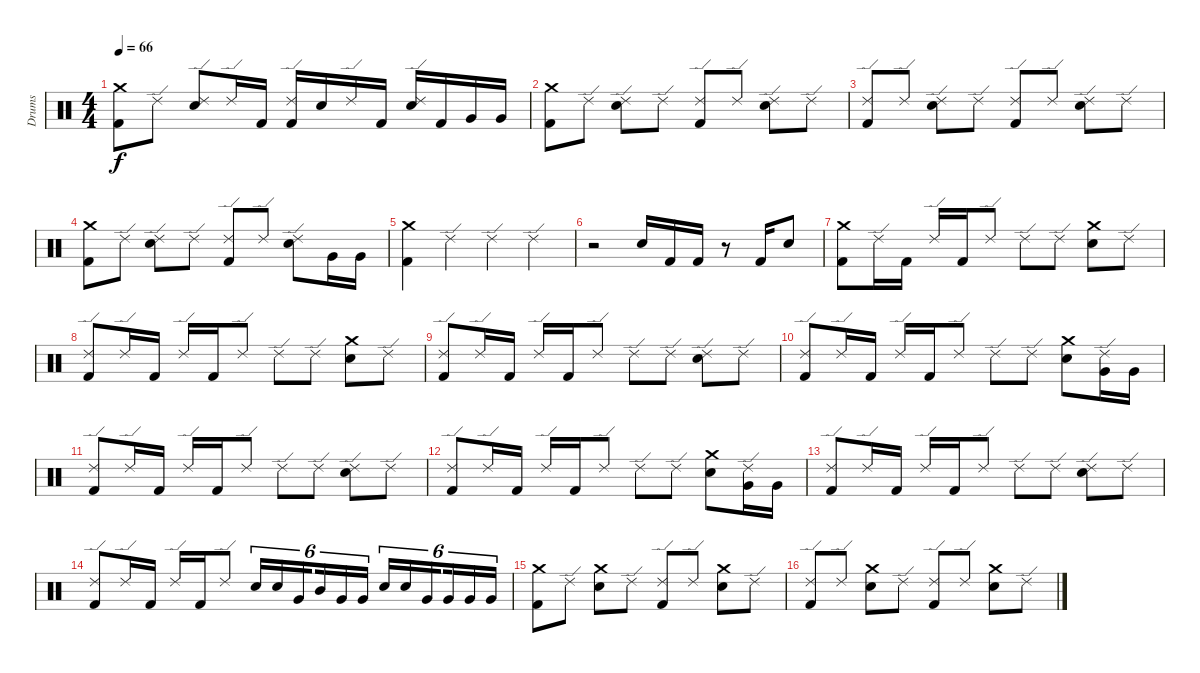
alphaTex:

\track ("Drums" "Drums") {instrument percussion}
\staff {score}
\articulation defaults
\ts (4 4)
\tempo 66
\clef neutral
\ks c
("Kick (hit) 2" "Crash medium (hit)").8{dy f} "Ride (edge) 2".8 ("Snare (hit) 2" "Ride (edge) 2").8 "Ride (edge) 2".16 "Kick (hit) 2".16 ("Kick (hit) 2" "Ride (edge) 2").16 "Snare (hit) 2".16 "Ride (edge) 2".16 "Kick (hit) 2".16 ("Snare (hit) 2" "Ride (edge) 2").16 "Kick (hit) 2".16 "Very Low Tom (hit)".16 "Very Low Tom (hit)".16 |
("Kick (hit) 2" "Crash medium (hit)").8 "Ride (edge) 2".8 ("Snare (hit) 2" "Ride (edge) 2").8 "Ride (edge) 2".8 ("Kick (hit) 2" "Ride (edge) 2").8 "Ride (edge) 2".8 ("Snare (hit) 2" "Ride (edge) 2").8 "Ride (edge) 2".8 |
("Ride (edge) 2" "Kick (hit) 2").8 "Ride (edge) 2".8 ("Ride (edge) 2" "Snare (hit) 2").8 "Ride (edge) 2".8 ("Ride (edge) 2" "Kick (hit) 2").8 "Ride (edge) 2".8 ("Ride (edge) 2" "Snare (hit) 2").8 "Ride (edge) 2".8 |
("Crash medium (hit)" "Kick (hit) 2").8 "Ride (edge) 2".8 ("Ride (edge) 2" "Snare (hit) 2").8 "Ride (edge) 2".8 ("Ride (edge) 2" "Kick (hit) 2").8 "Ride (edge) 2".8 ("Ride (edge) 2" "Snare (hit) 2").8 "Very Low Tom (hit)".16 "Very Low Tom (hit)".16 |
("Kick (hit) 2" "Crash medium (hit)").4 "Ride (edge) 2".4 "Ride (edge) 2".4 "Ride (edge) 2".4 |
r.2 "Snare (hit) 2".16 "Kick (hit) 2".16 "Kick (hit) 2".16 r.8 "Kick (hit) 2".16 "Snare (hit) 2".8 |
("Crash medium (hit)" "Kick (hit) 2").8 "Ride (edge) 2".16 "Kick (hit) 2".16 "Ride (edge) 2".16 "Kick (hit) 2".16 "Ride (edge) 2".8 "Ride (edge) 2".8 "Ride (edge) 2".8 ("Crash medium (hit)" "Snare (hit) 2").8 "Ride (edge) 2".8 |
("Ride (edge) 2" "Kick (hit) 2").8 "Ride (edge) 2".16 "Kick (hit) 2".16 "Ride (edge) 2".16 "Kick (hit) 2".16 "Ride (edge) 2".8 "Ride (edge) 2".8 "Ride (edge) 2".8 ("Crash medium (hit)" "Snare (hit) 2").8 "Ride (edge) 2".8 |
("Ride (edge) 2" "Kick (hit) 2").8 "Ride (edge) 2".16 "Kick (hit) 2".16 "Ride (edge) 2".16 "Kick (hit) 2".16 "Ride (edge) 2".8 "Ride (edge) 2".8 "Ride (edge) 2".8 ("Ride (edge) 2" "Snare (hit) 2").8 "Ride (edge) 2".8 |
("Ride (edge) 2" "Kick (hit) 2").8 "Ride (edge) 2".16 "Kick (hit) 2".16 "Ride (edge) 2".16 "Kick (hit) 2".16 "Ride (edge) 2".8 "Ride (edge) 2".8 "Ride (edge) 2".8 ("Crash medium (hit)" "Snare (hit) 2").8 ("Very Low Tom (hit)" "Ride (edge) 2").16 "Very Low Tom (hit)".16 |
("Ride (edge) 2" "Kick (hit) 2").8 "Ride (edge) 2".16 "Kick (hit) 2".16 "Ride (edge) 2".16 "Kick (hit) 2".16 "Ride (edge) 2".8 "Ride (edge) 2".8 "Ride (edge) 2".8 ("Ride (edge) 2" "Snare (hit) 2").8 "Ride (edge) 2".8 |
("Ride (edge) 2" "Kick (hit) 2").8 "Ride (edge) 2".16 "Kick (hit) 2".16 "Ride (edge) 2".16 "Kick (hit) 2".16 "Ride (edge) 2".8 "Ride (edge) 2".8 "Ride (edge) 2".8 ("Crash medium (hit)" "Snare (hit) 2").8 ("Very Low Tom (hit)" "Ride (edge) 2").16 "Very Low Tom (hit)".16 |
("Ride (edge) 2" "Kick (hit) 2").8 "Ride (edge) 2".16 "Kick (hit) 2".16 "Ride (edge) 2".16 "Kick (hit) 2".16 "Ride (edge) 2".8 "Ride (edge) 2".8 "Ride (edge) 2".8 ("Ride (edge) 2" "Snare (hit) 2").8 "Ride (edge) 2".8 |
("Ride (edge) 2" "Kick (hit) 2").8 "Ride (edge) 2".16 "Kick (hit) 2".16 "Ride (edge) 2".16 "Kick (hit) 2".16 "Ride (edge) 2".8 "Snare (hit) 2".16{tu (6 4)} "Snare (hit) 2".16{tu (6 4)} "Very Low Tom (hit)".16{tu (6 4) beam splitsecondary} "Mid Tom (hit)".16{tu (6 4)} "Very Low Tom (hit)".16{tu (6 4)} "Very Low Tom (hit)".16{tu (6 4)} "Snare (hit) 2".16{tu (6 4)} "Snare (hit) 2".16{tu (6 4)} "Very Low Tom (hit)".16{tu (6 4) beam splitsecondary} "Very Low Tom (hit)".16{tu (6 4)} "Very Low Tom (hit)".16{tu (6 4)} "Very Low Tom (hit)".16{tu (6 4)} |
("Crash medium (hit)" "Kick (hit) 2").8 "Ride (edge) 2".8 ("Crash medium (hit)" "Snare (hit) 2").8 "Ride (edge) 2".8 ("Ride (edge) 2" "Kick (hit) 2").8 "Ride (edge) 2".8 ("Crash medium (hit)" "Snare (hit) 2").8 "Ride (edge) 2".8 |
("Ride (edge) 2" "Kick (hit) 2").8 "Ride (edge) 2".8 ("Crash medium (hit)" "Snare (hit) 2").8 "Ride (edge) 2".8 ("Ride (edge) 2" "Kick (hit) 2").8 "Ride (edge) 2".8 ("Crash medium (hit)" "Snare (hit) 2").8 "Ride (edge) 2".8
